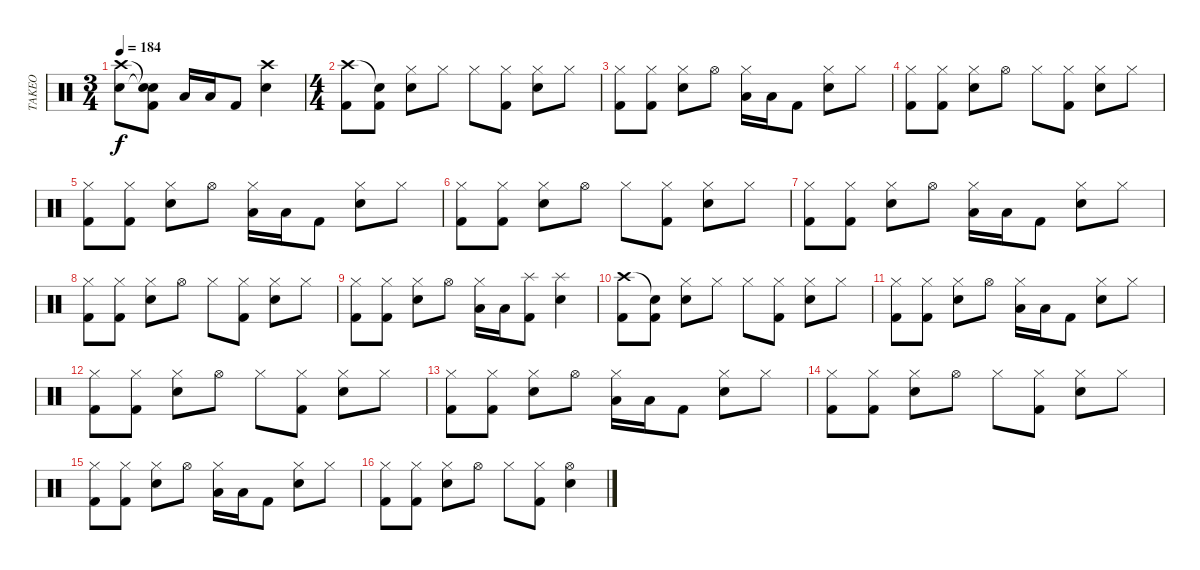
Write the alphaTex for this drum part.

\track ("TAKEO" "TAKEO") {instrument percussion}
\staff {score}
\articulation defaults
\ts (3 4)
\tempo 184
\clef neutral
\ks c
("Crash high (hit)" "Electric Snare (hit)").8{dy f} ("Snare (hit)"{t} "Snare (hit)"{t} "Kick (hit) 2").8 "Low Floor Tom (hit)".16 "Low Floor Tom (hit)".16 "Kick (hit) 2".8 ("Crash high (hit)" "Electric Snare (hit)").4 |
\ts (4 4)
("Crash high (hit)" "Kick (hit) 2").8 ("Snare (hit)"{t} "Kick (hit) 2").8 ("Hi-Hat (closed)" "Electric Snare (hit)").8 "Hi-Hat (closed)".8 "Hi-Hat (closed)".8 ("Hi-Hat (closed)" "Kick (hit) 2").8 ("Hi-Hat (closed)" "Electric Snare (hit)").8 "Hi-Hat (closed)".8 |
("Hi-Hat (closed)" "Kick (hit) 2").8 ("Hi-Hat (closed)" "Kick (hit) 2").8 ("Hi-Hat (closed)" "Electric Snare (hit)").8 "Hi-Hat (open)".8 ("Hi-Hat (closed)" "Low Tom (hit)").16 "Low Tom (hit)".16 "Kick (hit) 2".8 ("Hi-Hat (closed)" "Electric Snare (hit)").8 "Hi-Hat (closed)".8 |
("Hi-Hat (closed)" "Kick (hit) 2").8 ("Hi-Hat (closed)" "Kick (hit) 2").8 ("Hi-Hat (closed)" "Electric Snare (hit)").8 "Hi-Hat (open)".8 "Hi-Hat (closed)".8 ("Hi-Hat (closed)" "Kick (hit) 2").8 ("Hi-Hat (closed)" "Electric Snare (hit)").8 "Hi-Hat (closed)".8 |
("Hi-Hat (closed)" "Kick (hit) 2").8 ("Hi-Hat (closed)" "Kick (hit) 2").8 ("Hi-Hat (closed)" "Electric Snare (hit)").8 "Hi-Hat (open)".8 ("Hi-Hat (closed)" "Low Tom (hit)").16 "Low Tom (hit)".16 "Kick (hit) 2".8 ("Hi-Hat (closed)" "Electric Snare (hit)").8 "Hi-Hat (closed)".8 |
("Hi-Hat (closed)" "Kick (hit) 2").8 ("Hi-Hat (closed)" "Kick (hit) 2").8 ("Hi-Hat (closed)" "Electric Snare (hit)").8 "Hi-Hat (open)".8 "Hi-Hat (closed)".8 ("Hi-Hat (closed)" "Kick (hit) 2").8 ("Hi-Hat (closed)" "Electric Snare (hit)").8 "Hi-Hat (closed)".8 |
("Hi-Hat (closed)" "Kick (hit) 2").8 ("Hi-Hat (closed)" "Kick (hit) 2").8 ("Hi-Hat (closed)" "Electric Snare (hit)").8 "Hi-Hat (open)".8 ("Hi-Hat (closed)" "Low Tom (hit)").16 "Low Tom (hit)".16 "Kick (hit) 2".8 ("Hi-Hat (closed)" "Electric Snare (hit)").8 "Hi-Hat (closed)".8 |
("Hi-Hat (closed)" "Kick (hit) 2").8 ("Hi-Hat (closed)" "Kick (hit) 2").8 ("Hi-Hat (closed)" "Electric Snare (hit)").8 "Hi-Hat (open)".8 "Hi-Hat (closed)".8 ("Hi-Hat (closed)" "Kick (hit) 2").8 ("Hi-Hat (closed)" "Electric Snare (hit)").8 "Hi-Hat (closed)".8 |
("Hi-Hat (closed)" "Kick (hit) 2").8 ("Hi-Hat (closed)" "Kick (hit) 2").8 ("Hi-Hat (closed)" "Electric Snare (hit)").8 "Hi-Hat (open)".8 ("Hi-Hat (closed)" "Low Tom (hit)").16 "Low Tom (hit)".16 ("Splash (hit)" "Kick (hit) 2").8 ("Splash (hit)" "Electric Snare (hit)").4 |
("Crash high (hit)" "Kick (hit) 2").8 ("Snare (hit)"{t} "Kick (hit) 2").8 ("Hi-Hat (closed)" "Electric Snare (hit)").8 "Hi-Hat (closed)".8 "Hi-Hat (closed)".8 ("Hi-Hat (closed)" "Kick (hit) 2").8 ("Hi-Hat (closed)" "Electric Snare (hit)").8 "Hi-Hat (closed)".8 |
("Hi-Hat (closed)" "Kick (hit) 2").8 ("Hi-Hat (closed)" "Kick (hit) 2").8 ("Hi-Hat (closed)" "Electric Snare (hit)").8 "Hi-Hat (open)".8 ("Hi-Hat (closed)" "Low Tom (hit)").16 "Low Tom (hit)".16 "Kick (hit) 2".8 ("Hi-Hat (closed)" "Electric Snare (hit)").8 "Hi-Hat (closed)".8 |
("Hi-Hat (closed)" "Kick (hit) 2").8 ("Hi-Hat (closed)" "Kick (hit) 2").8 ("Hi-Hat (closed)" "Electric Snare (hit)").8 "Hi-Hat (open)".8 "Hi-Hat (closed)".8 ("Hi-Hat (closed)" "Kick (hit) 2").8 ("Hi-Hat (closed)" "Electric Snare (hit)").8 "Hi-Hat (closed)".8 |
("Hi-Hat (closed)" "Kick (hit) 2").8 ("Hi-Hat (closed)" "Kick (hit) 2").8 ("Hi-Hat (closed)" "Electric Snare (hit)").8 "Hi-Hat (open)".8 ("Hi-Hat (closed)" "Low Tom (hit)").16 "Low Tom (hit)".16 "Kick (hit) 2".8 ("Hi-Hat (closed)" "Electric Snare (hit)").8 "Hi-Hat (closed)".8 |
("Hi-Hat (closed)" "Kick (hit) 2").8 ("Hi-Hat (closed)" "Kick (hit) 2").8 ("Hi-Hat (closed)" "Electric Snare (hit)").8 "Hi-Hat (open)".8 "Hi-Hat (closed)".8 ("Hi-Hat (closed)" "Kick (hit) 2").8 ("Hi-Hat (closed)" "Electric Snare (hit)").8 "Hi-Hat (closed)".8 |
("Hi-Hat (closed)" "Kick (hit) 2").8 ("Hi-Hat (closed)" "Kick (hit) 2").8 ("Hi-Hat (closed)" "Electric Snare (hit)").8 "Hi-Hat (open)".8 ("Hi-Hat (closed)" "Low Tom (hit)").16 "Low Tom (hit)".16 "Kick (hit) 2".8 ("Hi-Hat (closed)" "Electric Snare (hit)").8 "Hi-Hat (closed)".8 |
("Hi-Hat (closed)" "Kick (hit) 2").8 ("Hi-Hat (closed)" "Kick (hit) 2").8 ("Hi-Hat (closed)" "Electric Snare (hit)").8 "Hi-Hat (open)".8 "Hi-Hat (closed)".8 ("Hi-Hat (closed)" "Kick (hit) 2").8 ("Hi-Hat (open)" "Electric Snare (hit)").4
